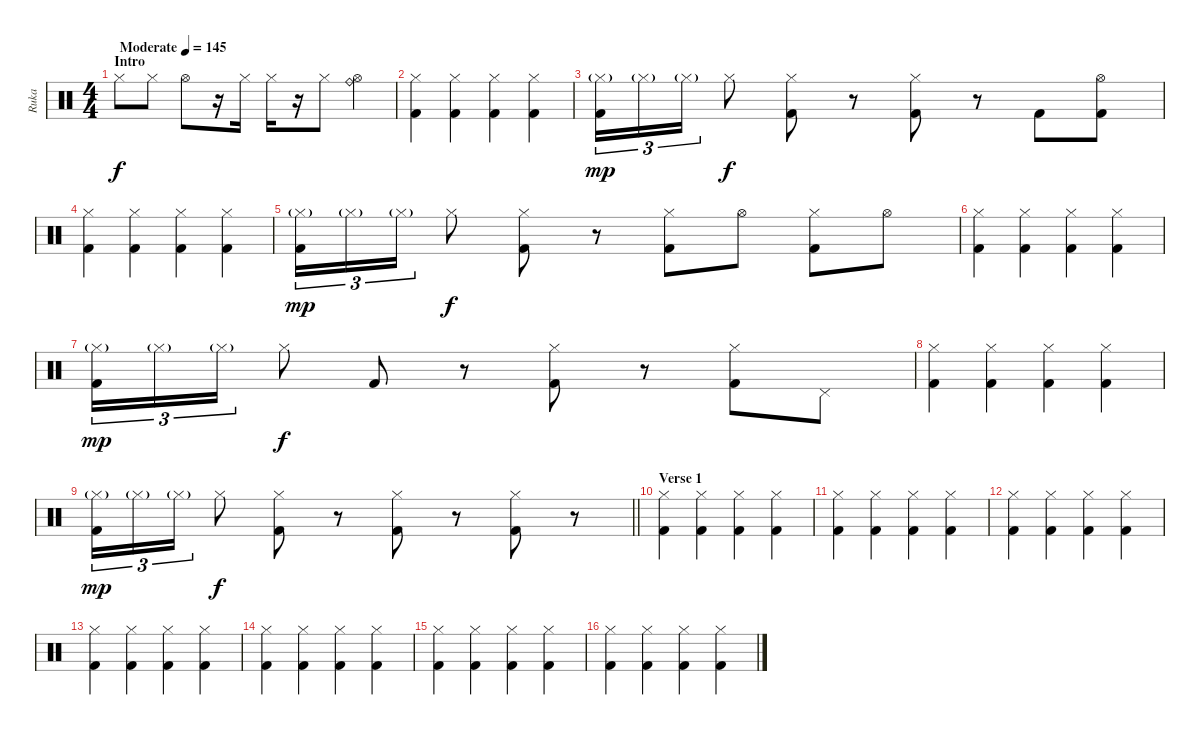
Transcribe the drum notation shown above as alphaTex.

\track ("Ruka" "Ruka") {instrument percussion}
\staff {score}
\articulation defaults
\ts (4 4)
\section ("" "Intro")
\tempo (145 "Moderate")
\clef neutral
\ks c "Hi-Hat (closed)".8{dy f} "Hi-Hat (closed)".8 "Hi-Hat (open)".8
r.16 "Hi-Hat (closed)".16 "Hi-Hat (closed)".16 r.16 "Hi-Hat (closed)".8 ("Ride (bell)" "Hi-Hat (open)").4 |
("Hi-Hat (closed)" "Kick (hit) 2").4 ("Hi-Hat (closed)" "Kick (hit) 2").4 ("Hi-Hat (closed)" "Kick (hit) 2").4 ("Hi-Hat (closed)" "Kick (hit) 2").4 |
("Hi-Hat (closed)"{g} "Kick (hit) 2").16{tu (3 2) dy mp} "Hi-Hat (closed)"{g}.16{tu (3 2)} "Hi-Hat (closed)"{g}.16{tu (3 2)} "Hi-Hat (closed)".8{dy f} ("Hi-Hat (closed)" "Kick (hit) 2").8 r.8 ("Hi-Hat (closed)" "Kick (hit) 2").8 r.8 "Kick (hit) 2".8 ("Hi-Hat (open)" "Kick (hit) 2").8 |
("Hi-Hat (closed)" "Kick (hit) 2").4 ("Hi-Hat (closed)" "Kick (hit) 2").4 ("Hi-Hat (closed)" "Kick (hit) 2").4 ("Hi-Hat (closed)" "Kick (hit) 2").4 |
("Hi-Hat (closed)"{g} "Kick (hit) 2").16{tu (3 2) dy mp} "Hi-Hat (closed)"{g}.16{tu (3 2)} "Hi-Hat (closed)"{g}.16{tu (3 2)} "Hi-Hat (closed)".8{dy f} ("Hi-Hat (closed)" "Kick (hit) 2").8 r.8 ("Hi-Hat (closed)" "Kick (hit) 2").8 "Hi-Hat (open)".8 ("Hi-Hat (closed)" "Kick (hit) 2").8 "Hi-Hat (open)".8 |
("Hi-Hat (closed)" "Kick (hit) 2").4 ("Hi-Hat (closed)" "Kick (hit) 2").4 ("Hi-Hat (closed)" "Kick (hit) 2").4 ("Hi-Hat (closed)" "Kick (hit) 2").4 |
("Hi-Hat (closed)"{g} "Kick (hit) 2").16{tu (3 2) dy mp} "Hi-Hat (closed)"{g}.16{tu (3 2)} "Hi-Hat (closed)"{g}.16{tu (3 2)} "Hi-Hat (closed)".8{dy f} "Kick (hit) 2".8 r.8 ("Hi-Hat (closed)" "Kick (hit) 2").8 r.8 ("Hi-Hat (closed)" "Kick (hit) 2").8 "Pedal Hi-Hat (hit)".8 |
("Hi-Hat (closed)" "Kick (hit) 2").4 ("Hi-Hat (closed)" "Kick (hit) 2").4 ("Hi-Hat (closed)" "Kick (hit) 2").4 ("Hi-Hat (closed)" "Kick (hit) 2").4 |
\barLineRight lightlight
("Hi-Hat (closed)"{g} "Kick (hit) 2").16{tu (3 2) dy mp} "Hi-Hat (closed)"{g}.16{tu (3 2)} "Hi-Hat (closed)"{g}.16{tu (3 2)} "Hi-Hat (closed)".8{dy f} ("Hi-Hat (closed)" "Kick (hit) 2").8 r.8 ("Hi-Hat (closed)" "Kick (hit) 2").8 r.8 ("Hi-Hat (closed)" "Kick (hit) 2").8 r.8 |
\section ("" "Verse 1")
("Hi-Hat (closed)" "Kick (hit) 2").4 ("Hi-Hat (closed)" "Kick (hit) 2").4 ("Hi-Hat (closed)" "Kick (hit) 2").4 ("Hi-Hat (closed)" "Kick (hit) 2").4 |
("Hi-Hat (closed)" "Kick (hit) 2").4 ("Hi-Hat (closed)" "Kick (hit) 2").4 ("Hi-Hat (closed)" "Kick (hit) 2").4 ("Hi-Hat (closed)" "Kick (hit) 2").4 |
("Hi-Hat (closed)" "Kick (hit) 2").4 ("Hi-Hat (closed)" "Kick (hit) 2").4 ("Hi-Hat (closed)" "Kick (hit) 2").4 ("Hi-Hat (closed)" "Kick (hit) 2").4 |
("Hi-Hat (closed)" "Kick (hit) 2").4 ("Hi-Hat (closed)" "Kick (hit) 2").4 ("Hi-Hat (closed)" "Kick (hit) 2").4 ("Hi-Hat (closed)" "Kick (hit) 2").4 |
("Hi-Hat (closed)" "Kick (hit) 2").4 ("Hi-Hat (closed)" "Kick (hit) 2").4 ("Hi-Hat (closed)" "Kick (hit) 2").4 ("Hi-Hat (closed)" "Kick (hit) 2").4 |
("Hi-Hat (closed)" "Kick (hit) 2").4 ("Hi-Hat (closed)" "Kick (hit) 2").4 ("Hi-Hat (closed)" "Kick (hit) 2").4 ("Hi-Hat (closed)" "Kick (hit) 2").4 |
("Hi-Hat (closed)" "Kick (hit) 2").4 ("Hi-Hat (closed)" "Kick (hit) 2").4 ("Hi-Hat (closed)" "Kick (hit) 2").4 ("Hi-Hat (closed)" "Kick (hit) 2").4
